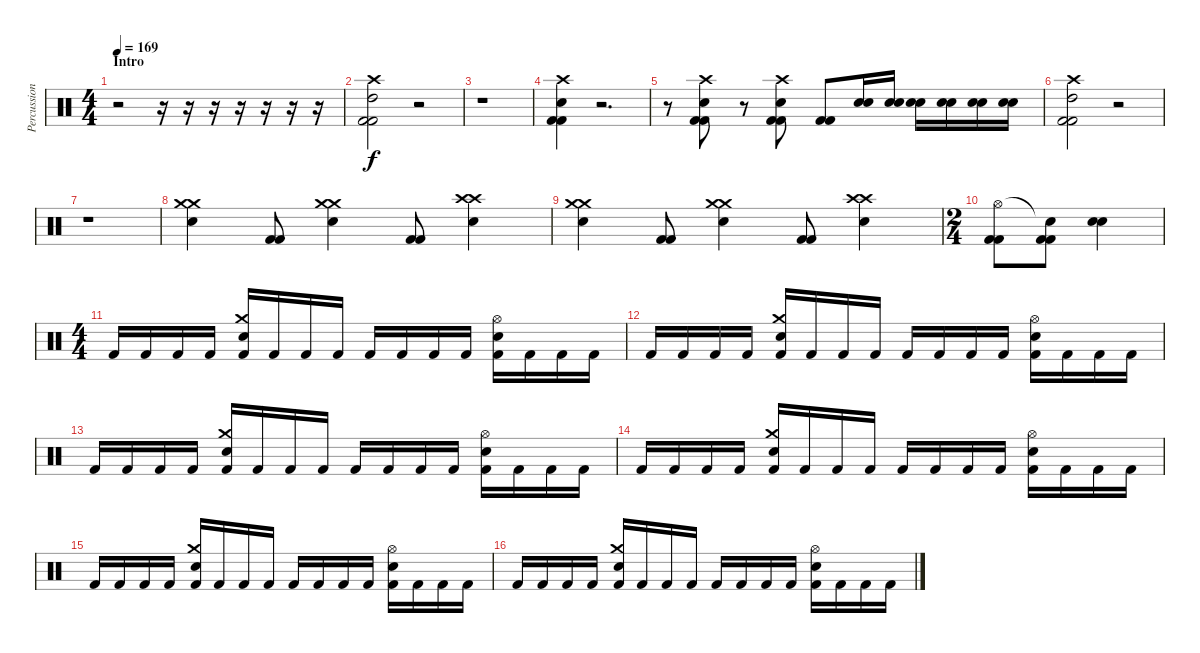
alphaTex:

\track ("Percussion" "Percussion") {instrument percussion}
\staff {score}
\articulation defaults
\ts (4 4)
\section ("" "Intro")
\tempo 169
\clef neutral
\ks c
r.2{dy f} r.16 r.16 r.16 r.16 r.16 r.16 r.16 |
("Crash high (hit)" "High Tom (hit)" "Kick (hit) 2" "Kick (hit) 2").2 r.2 |
r.1 |
("Crash high (hit)" "Snare (hit) 2" "Kick (hit) 2" "Kick (hit) 2").4 r.2{d} |
r.8 ("Crash high (hit)" "Snare (hit) 2" "Kick (hit) 2" "Kick (hit) 2").8 r.8 ("Crash high (hit)" "Snare (hit) 2" "Kick (hit) 2" "Kick (hit) 2").8 ("Kick (hit) 2" "Kick (hit) 2").8 ("Snare (hit) 2" "Snare (hit) 2").16 ("Snare (hit) 2" "Snare (hit) 2").16 ("Snare (hit) 2" "Snare (hit) 2").16 ("Snare (hit) 2" "Snare (hit) 2").16 ("Snare (hit) 2" "Snare (hit) 2").16 ("Snare (hit) 2" "Snare (hit) 2").16 |
("Crash high (hit)" "High Tom (hit)" "Kick (hit) 2" "Kick (hit) 2").2 r.2 |
r.1 |
("Crash medium (hit)" "Crash medium (hit)" "Snare (hit) 2").4 ("Kick (hit) 2" "Kick (hit) 2").8 ("Crash medium (hit)" "Crash medium (hit)" "Snare (hit) 2").4 ("Kick (hit) 2" "Kick (hit) 2").8 ("Crash high (hit)" "Crash high (hit)" "Snare (hit) 2").4 |
("Crash medium (hit)" "Crash medium (hit)" "Snare (hit) 2").4 ("Kick (hit) 2" "Kick (hit) 2").8 ("Crash medium (hit)" "Crash medium (hit)" "Snare (hit) 2").4 ("Kick (hit) 2" "Kick (hit) 2").8 ("Crash high (hit)" "Crash high (hit)" "Snare (hit) 2").4 |
\ts (2 4)
("Kick (hit) 2" "Kick (hit) 2" "Hi-Hat (open)").8 ("Kick (hit) 2" "Kick (hit) 2" "Snare (hit)"{t}).8 ("Snare (hit) 2" "Snare (hit) 2").4 |
\ts (4 4)
"Kick (hit) 2".16 "Kick (hit) 2".16 "Kick (hit) 2".16 "Kick (hit) 2".16 ("Crash medium (hit)" "Electric Snare (hit)" "Kick (hit) 2").16 "Kick (hit) 2".16 "Kick (hit) 2".16 "Kick (hit) 2".16 "Kick (hit) 2".16 "Kick (hit) 2".16 "Kick (hit) 2".16 "Kick (hit) 2".16 ("Hi-Hat (open)" "Snare (hit) 2" "Kick (hit) 2").16 "Kick (hit) 2".16 "Kick (hit) 2".16 "Kick (hit) 2".16 |
"Kick (hit) 2".16 "Kick (hit) 2".16 "Kick (hit) 2".16 "Kick (hit) 2".16 ("Crash medium (hit)" "Electric Snare (hit)" "Kick (hit) 2").16 "Kick (hit) 2".16 "Kick (hit) 2".16 "Kick (hit) 2".16 "Kick (hit) 2".16 "Kick (hit) 2".16 "Kick (hit) 2".16 "Kick (hit) 2".16 ("Hi-Hat (open)" "Snare (hit) 2" "Kick (hit) 2").16 "Kick (hit) 2".16 "Kick (hit) 2".16 "Kick (hit) 2".16 |
"Kick (hit) 2".16 "Kick (hit) 2".16 "Kick (hit) 2".16 "Kick (hit) 2".16 ("Crash medium (hit)" "Electric Snare (hit)" "Kick (hit) 2").16 "Kick (hit) 2".16 "Kick (hit) 2".16 "Kick (hit) 2".16 "Kick (hit) 2".16 "Kick (hit) 2".16 "Kick (hit) 2".16 "Kick (hit) 2".16 ("Hi-Hat (open)" "Snare (hit) 2" "Kick (hit) 2").16 "Kick (hit) 2".16 "Kick (hit) 2".16 "Kick (hit) 2".16 |
"Kick (hit) 2".16 "Kick (hit) 2".16 "Kick (hit) 2".16 "Kick (hit) 2".16 ("Crash medium (hit)" "Electric Snare (hit)" "Kick (hit) 2").16 "Kick (hit) 2".16 "Kick (hit) 2".16 "Kick (hit) 2".16 "Kick (hit) 2".16 "Kick (hit) 2".16 "Kick (hit) 2".16 "Kick (hit) 2".16 ("Hi-Hat (open)" "Snare (hit) 2" "Kick (hit) 2").16 "Kick (hit) 2".16 "Kick (hit) 2".16 "Kick (hit) 2".16 |
"Kick (hit) 2".16 "Kick (hit) 2".16 "Kick (hit) 2".16 "Kick (hit) 2".16 ("Crash medium (hit)" "Electric Snare (hit)" "Kick (hit) 2").16 "Kick (hit) 2".16 "Kick (hit) 2".16 "Kick (hit) 2".16 "Kick (hit) 2".16 "Kick (hit) 2".16 "Kick (hit) 2".16 "Kick (hit) 2".16 ("Hi-Hat (open)" "Snare (hit) 2" "Kick (hit) 2").16 "Kick (hit) 2".16 "Kick (hit) 2".16 "Kick (hit) 2".16 |
"Kick (hit) 2".16 "Kick (hit) 2".16 "Kick (hit) 2".16 "Kick (hit) 2".16 ("Crash medium (hit)" "Electric Snare (hit)" "Kick (hit) 2").16 "Kick (hit) 2".16 "Kick (hit) 2".16 "Kick (hit) 2".16 "Kick (hit) 2".16 "Kick (hit) 2".16 "Kick (hit) 2".16 "Kick (hit) 2".16 ("Hi-Hat (open)" "Snare (hit) 2" "Kick (hit) 2").16 "Kick (hit) 2".16 "Kick (hit) 2".16 "Kick (hit) 2".16
